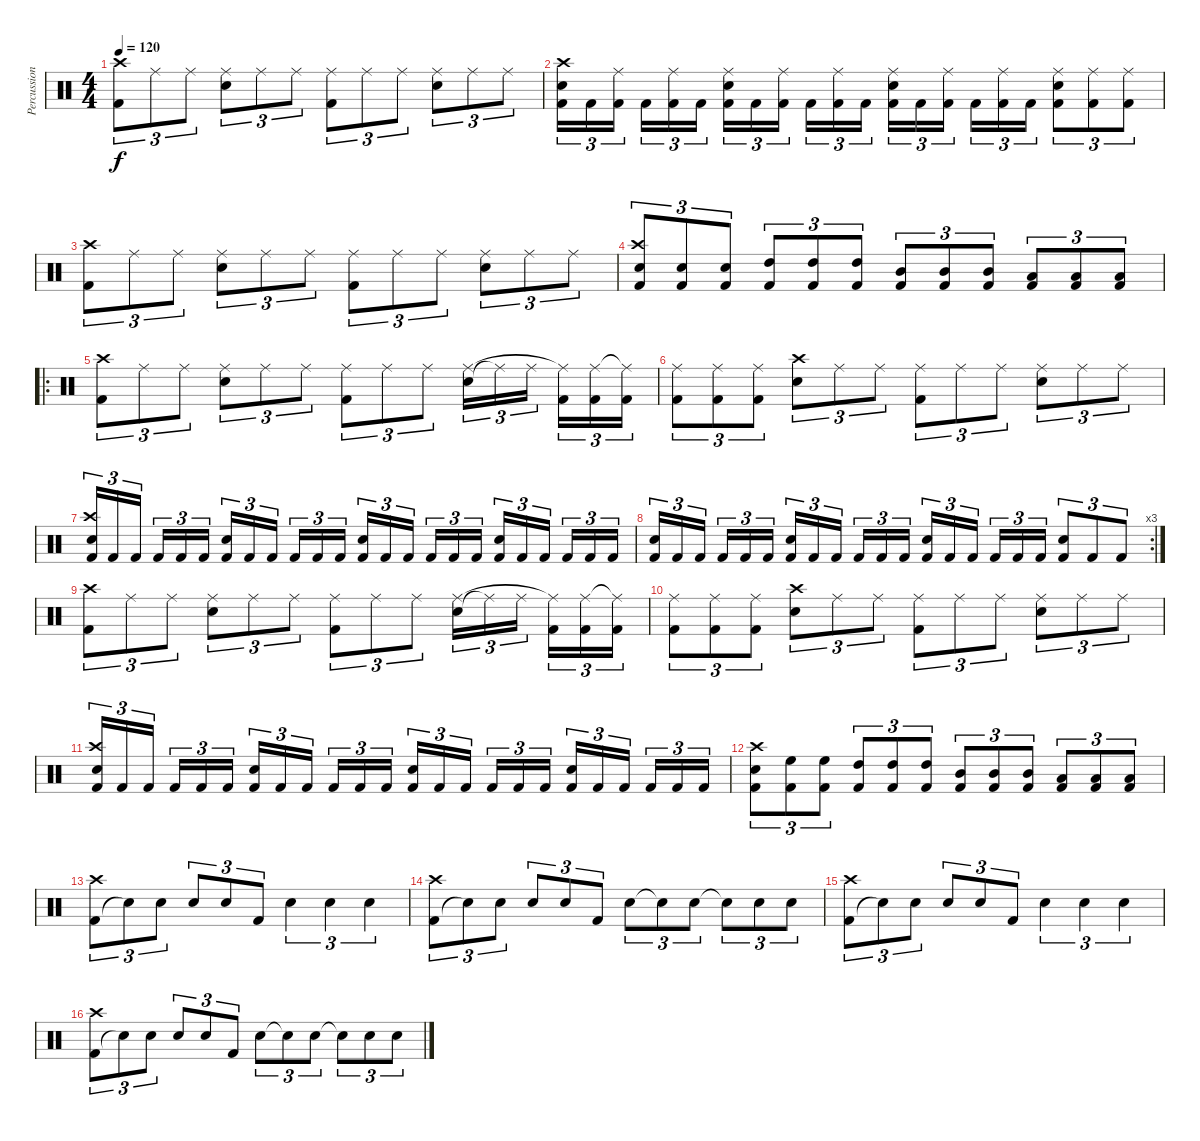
\track ("Percussions" "Percussion") {instrument percussion}
\staff {score}
\articulation defaults
\ts (4 4)
\tempo 120
\clef neutral
\ks c
("Kick (hit) 2" "Crash high (hit)").8{tu (3 2) dy f} "Ride (middle)".8{tu (3 2)} "Ride (middle)".8{tu (3 2)} ("Snare (hit) 2" "Ride (middle)").8{tu (3 2)} "Ride (middle)".8{tu (3 2)} "Ride (middle)".8{tu (3 2)} ("Kick (hit) 2" "Ride (middle)").8{tu (3 2)} "Ride (middle)".8{tu (3 2)} "Ride (middle)".8{tu (3 2)} ("Snare (hit) 2" "Ride (middle)").8{tu (3 2)} "Ride (middle)".8{tu (3 2)} "Ride (middle)".8{tu (3 2)} |
("Kick (hit) 2" "Snare (hit) 2" "Crash high (hit)").16{tu (3 2)} "Kick (hit) 2".16{tu (3 2)} ("Kick (hit) 2" "Ride (middle)").16{tu (3 2)} "Kick (hit) 2".16{tu (3 2)} ("Kick (hit) 2" "Ride (middle)").16{tu (3 2)} "Kick (hit) 2".16{tu (3 2)} ("Kick (hit) 2" "Snare (hit) 2" "Ride (middle)").16{tu (3 2)} "Kick (hit) 2".16{tu (3 2)} ("Kick (hit) 2" "Ride (middle)").16{tu (3 2)} "Kick (hit) 2".16{tu (3 2)} ("Kick (hit) 2" "Ride (middle)").16{tu (3 2)} "Kick (hit) 2".16{tu (3 2)} ("Kick (hit) 2" "Snare (hit) 2" "Ride (middle)").16{tu (3 2)} "Kick (hit) 2".16{tu (3 2)} ("Kick (hit) 2" "Ride (middle)").16{tu (3 2)} "Kick (hit) 2".16{tu (3 2)} ("Kick (hit) 2" "Ride (middle)").16{tu (3 2)} "Kick (hit) 2".16{tu (3 2)} ("Kick (hit) 2" "Snare (hit) 2" "Ride (middle)").8{tu (3 2)} ("Kick (hit) 2" "Ride (middle)").8{tu (3 2)} ("Kick (hit) 2" "Ride (middle)").8{tu (3 2)} |
("Kick (hit) 2" "Crash high (hit)").8{tu (3 2)} "Ride (middle)".8{tu (3 2)} "Ride (middle)".8{tu (3 2)} ("Snare (hit) 2" "Ride (middle)").8{tu (3 2)} "Ride (middle)".8{tu (3 2)} "Ride (middle)".8{tu (3 2)} ("Kick (hit) 2" "Ride (middle)").8{tu (3 2)} "Ride (middle)".8{tu (3 2)} "Ride (middle)".8{tu (3 2)} ("Snare (hit) 2" "Ride (middle)").8{tu (3 2)} "Ride (middle)".8{tu (3 2)} "Ride (middle)".8{tu (3 2)} |
("Kick (hit) 2" "Snare (hit) 2" "Crash high (hit)").8{tu (3 2)} ("Kick (hit) 2" "Snare (hit) 2").8{tu (3 2)} ("Kick (hit) 2" "Snare (hit) 2").8{tu (3 2)} ("Kick (hit) 2" "High Tom (hit)").8{tu (3 2)} ("Kick (hit) 2" "High Tom (hit)").8{tu (3 2)} ("Kick (hit) 2" "High Tom (hit)").8{tu (3 2)} ("Kick (hit) 2" "Mid Tom (hit)").8{tu (3 2)} ("Kick (hit) 2" "Mid Tom (hit)").8{tu (3 2)} ("Kick (hit) 2" "Mid Tom (hit)").8{tu (3 2)} ("Kick (hit) 2" "Low Tom (hit)").8{tu (3 2)} ("Kick (hit) 2" "Low Tom (hit)").8{tu (3 2)} ("Kick (hit) 2" "Low Tom (hit)").8{tu (3 2)} |
\ro
("Kick (hit) 2" "Crash high (hit)").8{tu (3 2)} "Ride (middle)".8{tu (3 2)} "Ride (middle)".8{tu (3 2)} ("Snare (hit) 2" "Ride (middle)").8{tu (3 2)} "Ride (middle)".8{tu (3 2)} "Ride (middle)".8{tu (3 2)} ("Kick (hit) 2" "Ride (middle)").8{tu (3 2)} "Ride (middle)".8{tu (3 2)} "Ride (middle)".8{tu (3 2)} ("Snare (hit) 2" "Ride (middle)").16{tu (3 2)} "Ride (middle)"{t}.16{tu (3 2)} "Ride (middle)".16{tu (3 2)} ("Kick (hit) 2" "Ride (middle)"{t}).16{tu (3 2)} ("Kick (hit) 2" "Ride (middle)").16{tu (3 2)} ("Kick (hit) 2" "Ride (middle)"{t}).16{tu (3 2)} |
("Kick (hit) 2" "Ride (middle)").8{tu (3 2)} ("Kick (hit) 2" "Ride (middle)").8{tu (3 2)} ("Kick (hit) 2" "Ride (middle)").8{tu (3 2)} ("Snare (hit) 2" "Crash high (hit)").8{tu (3 2)} "Ride (middle)".8{tu (3 2)} "Ride (middle)".8{tu (3 2)} ("Kick (hit) 2" "Ride (middle)").8{tu (3 2)} "Ride (middle)".8{tu (3 2)} "Ride (middle)".8{tu (3 2)} ("Snare (hit) 2" "Ride (middle)").8{tu (3 2)} "Ride (middle)".8{tu (3 2)} "Ride (middle)".8{tu (3 2)} |
("Kick (hit) 2" "Snare (hit) 2" "Crash high (hit)").16{tu (3 2)} "Kick (hit) 2".16{tu (3 2)} "Kick (hit) 2".16{tu (3 2)} "Kick (hit) 2".16{tu (3 2)} "Kick (hit) 2".16{tu (3 2)} "Kick (hit) 2".16{tu (3 2)} ("Kick (hit) 2" "Snare (hit) 2").16{tu (3 2)} "Kick (hit) 2".16{tu (3 2)} "Kick (hit) 2".16{tu (3 2)} "Kick (hit) 2".16{tu (3 2)} "Kick (hit) 2".16{tu (3 2)} "Kick (hit) 2".16{tu (3 2)} ("Kick (hit) 2" "Snare (hit) 2").16{tu (3 2)} "Kick (hit) 2".16{tu (3 2)} "Kick (hit) 2".16{tu (3 2)} "Kick (hit) 2".16{tu (3 2)} "Kick (hit) 2".16{tu (3 2)} "Kick (hit) 2".16{tu (3 2)} ("Kick (hit) 2" "Snare (hit) 2").16{tu (3 2)} "Kick (hit) 2".16{tu (3 2)} "Kick (hit) 2".16{tu (3 2)} "Kick (hit) 2".16{tu (3 2)} "Kick (hit) 2".16{tu (3 2)} "Kick (hit) 2".16{tu (3 2)} |
\rc 3
("Kick (hit) 2" "Snare (hit) 2").16{tu (3 2)} "Kick (hit) 2".16{tu (3 2)} "Kick (hit) 2".16{tu (3 2)} "Kick (hit) 2".16{tu (3 2)} "Kick (hit) 2".16{tu (3 2)} "Kick (hit) 2".16{tu (3 2)} ("Kick (hit) 2" "Snare (hit) 2").16{tu (3 2)} "Kick (hit) 2".16{tu (3 2)} "Kick (hit) 2".16{tu (3 2)} "Kick (hit) 2".16{tu (3 2)} "Kick (hit) 2".16{tu (3 2)} "Kick (hit) 2".16{tu (3 2)} ("Kick (hit) 2" "Snare (hit) 2").16{tu (3 2)} "Kick (hit) 2".16{tu (3 2)} "Kick (hit) 2".16{tu (3 2)} "Kick (hit) 2".16{tu (3 2)} "Kick (hit) 2".16{tu (3 2)} "Kick (hit) 2".16{tu (3 2)} ("Kick (hit) 2" "Snare (hit) 2").8{tu (3 2)} "Kick (hit) 2".8{tu (3 2)} "Kick (hit) 2".8{tu (3 2)} |
("Kick (hit) 2" "Crash high (hit)").8{tu (3 2)} "Ride (middle)".8{tu (3 2)} "Ride (middle)".8{tu (3 2)} ("Snare (hit) 2" "Ride (middle)").8{tu (3 2)} "Ride (middle)".8{tu (3 2)} "Ride (middle)".8{tu (3 2)} ("Kick (hit) 2" "Ride (middle)").8{tu (3 2)} "Ride (middle)".8{tu (3 2)} "Ride (middle)".8{tu (3 2)} ("Snare (hit) 2" "Ride (middle)").16{tu (3 2)} "Ride (middle)"{t}.16{tu (3 2)} "Ride (middle)".16{tu (3 2)} ("Kick (hit) 2" "Ride (middle)"{t}).16{tu (3 2)} ("Kick (hit) 2" "Ride (middle)").16{tu (3 2)} ("Kick (hit) 2" "Ride (middle)"{t}).16{tu (3 2)} |
("Kick (hit) 2" "Ride (middle)").8{tu (3 2)} ("Kick (hit) 2" "Ride (middle)").8{tu (3 2)} ("Kick (hit) 2" "Ride (middle)").8{tu (3 2)} ("Snare (hit) 2" "Crash high (hit)").8{tu (3 2)} "Ride (middle)".8{tu (3 2)} "Ride (middle)".8{tu (3 2)} ("Kick (hit) 2" "Ride (middle)").8{tu (3 2)} "Ride (middle)".8{tu (3 2)} "Ride (middle)".8{tu (3 2)} ("Snare (hit) 2" "Ride (middle)").8{tu (3 2)} "Ride (middle)".8{tu (3 2)} "Ride (middle)".8{tu (3 2)} |
("Kick (hit) 2" "Snare (hit) 2" "Crash high (hit)").16{tu (3 2)} "Kick (hit) 2".16{tu (3 2)} "Kick (hit) 2".16{tu (3 2)} "Kick (hit) 2".16{tu (3 2)} "Kick (hit) 2".16{tu (3 2)} "Kick (hit) 2".16{tu (3 2)} ("Kick (hit) 2" "Snare (hit) 2").16{tu (3 2)} "Kick (hit) 2".16{tu (3 2)} "Kick (hit) 2".16{tu (3 2)} "Kick (hit) 2".16{tu (3 2)} "Kick (hit) 2".16{tu (3 2)} "Kick (hit) 2".16{tu (3 2)} ("Kick (hit) 2" "Snare (hit) 2").16{tu (3 2)} "Kick (hit) 2".16{tu (3 2)} "Kick (hit) 2".16{tu (3 2)} "Kick (hit) 2".16{tu (3 2)} "Kick (hit) 2".16{tu (3 2)} "Kick (hit) 2".16{tu (3 2)} ("Kick (hit) 2" "Snare (hit) 2").16{tu (3 2)} "Kick (hit) 2".16{tu (3 2)} "Kick (hit) 2".16{tu (3 2)} "Kick (hit) 2".16{tu (3 2)} "Kick (hit) 2".16{tu (3 2)} "Kick (hit) 2".16{tu (3 2)} |
("Kick (hit) 2" "Snare (hit) 2" "Crash high (hit)").8{tu (3 2)} ("Kick (hit) 2" "High Floor Tom (hit)").8{tu (3 2)} ("Kick (hit) 2" "High Floor Tom (hit)").8{tu (3 2)} ("Kick (hit) 2" "High Tom (hit)").8{tu (3 2)} ("Kick (hit) 2" "High Tom (hit)").8{tu (3 2)} ("Kick (hit) 2" "High Tom (hit)").8{tu (3 2)} ("Kick (hit) 2" "Mid Tom (hit)").8{tu (3 2)} ("Kick (hit) 2" "Mid Tom (hit)").8{tu (3 2)} ("Kick (hit) 2" "Mid Tom (hit)").8{tu (3 2)} ("Kick (hit) 2" "Low Tom (hit)").8{tu (3 2)} ("Kick (hit) 2" "Low Tom (hit)").8{tu (3 2)} ("Kick (hit) 2" "Low Tom (hit)").8{tu (3 2)} |
("Kick (hit) 2" "Crash high (hit)").8{tu (3 2)} "Snare (hit) 2"{t}.8{tu (3 2)} "Snare (hit) 2".8{tu (3 2)} "Snare (hit) 2".8{tu (3 2)} "Snare (hit) 2".8{tu (3 2)} "Kick (hit) 2".8{tu (3 2)} "Snare (hit) 2".4{tu (3 2)} "Snare (hit) 2".4{tu (3 2)} "Snare (hit) 2".4{tu (3 2)} |
("Kick (hit) 2" "Crash high (hit)").8{tu (3 2)} "Snare (hit) 2"{t}.8{tu (3 2)} "Snare (hit) 2".8{tu (3 2)} "Snare (hit) 2".8{tu (3 2)} "Snare (hit) 2".8{tu (3 2)} "Kick (hit) 2".8{tu (3 2)} "Snare (hit) 2".8{tu (3 2)} "Snare (hit) 2"{t}.8{tu (3 2)} "Snare (hit) 2".8{tu (3 2)} "Snare (hit)"{t}.8{tu (3 2)} "Snare (hit) 2".8{tu (3 2)} "Snare (hit) 2".8{tu (3 2)} |
("Kick (hit) 2" "Crash high (hit)").8{tu (3 2)} "Snare (hit) 2"{t}.8{tu (3 2)} "Snare (hit) 2".8{tu (3 2)} "Snare (hit) 2".8{tu (3 2)} "Snare (hit) 2".8{tu (3 2)} "Kick (hit) 2".8{tu (3 2)} "Snare (hit) 2".4{tu (3 2)} "Snare (hit) 2".4{tu (3 2)} "Snare (hit) 2".4{tu (3 2)} |
("Kick (hit) 2" "Crash high (hit)").8{tu (3 2)} "Snare (hit) 2"{t}.8{tu (3 2)} "Snare (hit) 2".8{tu (3 2)} "Snare (hit) 2".8{tu (3 2)} "Snare (hit) 2".8{tu (3 2)} "Kick (hit) 2".8{tu (3 2)} "Snare (hit) 2".8{tu (3 2)} "Snare (hit) 2"{t}.8{tu (3 2)} "Snare (hit) 2".8{tu (3 2)} "Snare (hit)"{t}.8{tu (3 2)} "Snare (hit) 2".8{tu (3 2)} "Snare (hit) 2".8{tu (3 2)}
